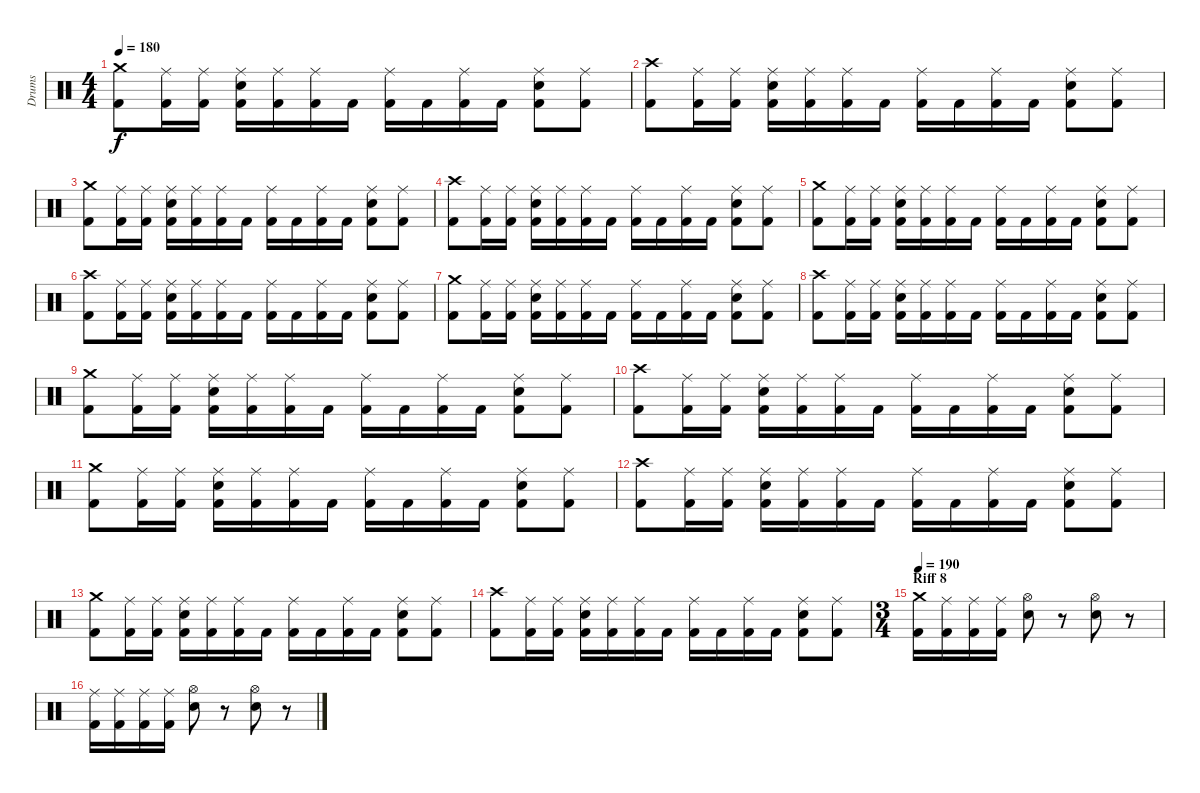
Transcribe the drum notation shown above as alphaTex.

\track ("Drums" "Drums") {instrument percussion}
\staff {score}
\articulation defaults
\ts (4 4)
\tempo 180
\clef neutral
\ks c
("Crash medium (hit)" "Kick (hit) 2").8{dy f} ("Ride (middle)" "Kick (hit) 2").16 ("Ride (middle)" "Kick (hit) 2").16 ("Ride (middle)" "Electric Snare (hit)" "Kick (hit) 2").16 ("Ride (middle)" "Kick (hit) 2").16 ("Ride (middle)" "Kick (hit) 2").16 "Kick (hit) 2".16 ("Ride (middle)" "Kick (hit) 2").16 "Kick (hit) 2".16 ("Ride (middle)" "Kick (hit) 2").16 "Kick (hit) 2".16 ("Ride (middle)" "Electric Snare (hit)" "Kick (hit) 2").8 ("Ride (middle)" "Kick (hit) 2").8 |
("Crash high (hit)" "Kick (hit) 2").8 ("Ride (middle)" "Kick (hit) 2").16 ("Ride (middle)" "Kick (hit) 2").16 ("Ride (middle)" "Electric Snare (hit)" "Kick (hit) 2").16 ("Ride (middle)" "Kick (hit) 2").16 ("Ride (middle)" "Kick (hit) 2").16 "Kick (hit) 2".16 ("Ride (middle)" "Kick (hit) 2").16 "Kick (hit) 2".16 ("Ride (middle)" "Kick (hit) 2").16 "Kick (hit) 2".16 ("Ride (middle)" "Electric Snare (hit)" "Kick (hit) 2").8 ("Ride (middle)" "Kick (hit) 2").8 |
("Crash medium (hit)" "Kick (hit) 2").8 ("Ride (middle)" "Kick (hit) 2").16 ("Ride (middle)" "Kick (hit) 2").16 ("Ride (middle)" "Electric Snare (hit)" "Kick (hit) 2").16 ("Ride (middle)" "Kick (hit) 2").16 ("Ride (middle)" "Kick (hit) 2").16 "Kick (hit) 2".16 ("Ride (middle)" "Kick (hit) 2").16 "Kick (hit) 2".16 ("Ride (middle)" "Kick (hit) 2").16 "Kick (hit) 2".16 ("Ride (middle)" "Electric Snare (hit)" "Kick (hit) 2").8 ("Ride (middle)" "Kick (hit) 2").8 |
("Crash high (hit)" "Kick (hit) 2").8 ("Ride (middle)" "Kick (hit) 2").16 ("Ride (middle)" "Kick (hit) 2").16 ("Ride (middle)" "Electric Snare (hit)" "Kick (hit) 2").16 ("Ride (middle)" "Kick (hit) 2").16 ("Ride (middle)" "Kick (hit) 2").16 "Kick (hit) 2".16 ("Ride (middle)" "Kick (hit) 2").16 "Kick (hit) 2".16 ("Ride (middle)" "Kick (hit) 2").16 "Kick (hit) 2".16 ("Ride (middle)" "Electric Snare (hit)" "Kick (hit) 2").8 ("Ride (middle)" "Kick (hit) 2").8 |
("Crash medium (hit)" "Kick (hit) 2").8 ("Ride (middle)" "Kick (hit) 2").16 ("Ride (middle)" "Kick (hit) 2").16 ("Ride (middle)" "Electric Snare (hit)" "Kick (hit) 2").16 ("Ride (middle)" "Kick (hit) 2").16 ("Ride (middle)" "Kick (hit) 2").16 "Kick (hit) 2".16 ("Ride (middle)" "Kick (hit) 2").16 "Kick (hit) 2".16 ("Ride (middle)" "Kick (hit) 2").16 "Kick (hit) 2".16 ("Ride (middle)" "Electric Snare (hit)" "Kick (hit) 2").8 ("Ride (middle)" "Kick (hit) 2").8 |
("Crash high (hit)" "Kick (hit) 2").8 ("Ride (middle)" "Kick (hit) 2").16 ("Ride (middle)" "Kick (hit) 2").16 ("Ride (middle)" "Electric Snare (hit)" "Kick (hit) 2").16 ("Ride (middle)" "Kick (hit) 2").16 ("Ride (middle)" "Kick (hit) 2").16 "Kick (hit) 2".16 ("Ride (middle)" "Kick (hit) 2").16 "Kick (hit) 2".16 ("Ride (middle)" "Kick (hit) 2").16 "Kick (hit) 2".16 ("Ride (middle)" "Electric Snare (hit)" "Kick (hit) 2").8 ("Ride (middle)" "Kick (hit) 2").8 |
("Crash medium (hit)" "Kick (hit) 2").8 ("Ride (middle)" "Kick (hit) 2").16 ("Ride (middle)" "Kick (hit) 2").16 ("Ride (middle)" "Electric Snare (hit)" "Kick (hit) 2").16 ("Ride (middle)" "Kick (hit) 2").16 ("Ride (middle)" "Kick (hit) 2").16 "Kick (hit) 2".16 ("Ride (middle)" "Kick (hit) 2").16 "Kick (hit) 2".16 ("Ride (middle)" "Kick (hit) 2").16 "Kick (hit) 2".16 ("Ride (middle)" "Electric Snare (hit)" "Kick (hit) 2").8 ("Ride (middle)" "Kick (hit) 2").8 |
("Crash high (hit)" "Kick (hit) 2").8 ("Ride (middle)" "Kick (hit) 2").16 ("Ride (middle)" "Kick (hit) 2").16 ("Ride (middle)" "Electric Snare (hit)" "Kick (hit) 2").16 ("Ride (middle)" "Kick (hit) 2").16 ("Ride (middle)" "Kick (hit) 2").16 "Kick (hit) 2".16 ("Ride (middle)" "Kick (hit) 2").16 "Kick (hit) 2".16 ("Ride (middle)" "Kick (hit) 2").16 "Kick (hit) 2".16 ("Ride (middle)" "Electric Snare (hit)" "Kick (hit) 2").8 ("Ride (middle)" "Kick (hit) 2").8 |
("Crash medium (hit)" "Kick (hit) 2").8 ("Ride (middle)" "Kick (hit) 2").16 ("Ride (middle)" "Kick (hit) 2").16 ("Ride (middle)" "Electric Snare (hit)" "Kick (hit) 2").16 ("Ride (middle)" "Kick (hit) 2").16 ("Ride (middle)" "Kick (hit) 2").16 "Kick (hit) 2".16 ("Ride (middle)" "Kick (hit) 2").16 "Kick (hit) 2".16 ("Ride (middle)" "Kick (hit) 2").16 "Kick (hit) 2".16 ("Ride (middle)" "Electric Snare (hit)" "Kick (hit) 2").8 ("Ride (middle)" "Kick (hit) 2").8 |
("Crash high (hit)" "Kick (hit) 2").8 ("Ride (middle)" "Kick (hit) 2").16 ("Ride (middle)" "Kick (hit) 2").16 ("Ride (middle)" "Electric Snare (hit)" "Kick (hit) 2").16 ("Ride (middle)" "Kick (hit) 2").16 ("Ride (middle)" "Kick (hit) 2").16 "Kick (hit) 2".16 ("Ride (middle)" "Kick (hit) 2").16 "Kick (hit) 2".16 ("Ride (middle)" "Kick (hit) 2").16 "Kick (hit) 2".16 ("Ride (middle)" "Electric Snare (hit)" "Kick (hit) 2").8 ("Ride (middle)" "Kick (hit) 2").8 |
("Crash medium (hit)" "Kick (hit) 2").8 ("Ride (middle)" "Kick (hit) 2").16 ("Ride (middle)" "Kick (hit) 2").16 ("Ride (middle)" "Electric Snare (hit)" "Kick (hit) 2").16 ("Ride (middle)" "Kick (hit) 2").16 ("Ride (middle)" "Kick (hit) 2").16 "Kick (hit) 2".16 ("Ride (middle)" "Kick (hit) 2").16 "Kick (hit) 2".16 ("Ride (middle)" "Kick (hit) 2").16 "Kick (hit) 2".16 ("Ride (middle)" "Electric Snare (hit)" "Kick (hit) 2").8 ("Ride (middle)" "Kick (hit) 2").8 |
("Crash high (hit)" "Kick (hit) 2").8 ("Ride (middle)" "Kick (hit) 2").16 ("Ride (middle)" "Kick (hit) 2").16 ("Ride (middle)" "Electric Snare (hit)" "Kick (hit) 2").16 ("Ride (middle)" "Kick (hit) 2").16 ("Ride (middle)" "Kick (hit) 2").16 "Kick (hit) 2".16 ("Ride (middle)" "Kick (hit) 2").16 "Kick (hit) 2".16 ("Ride (middle)" "Kick (hit) 2").16 "Kick (hit) 2".16 ("Ride (middle)" "Electric Snare (hit)" "Kick (hit) 2").8 ("Ride (middle)" "Kick (hit) 2").8 |
("Crash medium (hit)" "Kick (hit) 2").8 ("Ride (middle)" "Kick (hit) 2").16 ("Ride (middle)" "Kick (hit) 2").16 ("Ride (middle)" "Electric Snare (hit)" "Kick (hit) 2").16 ("Ride (middle)" "Kick (hit) 2").16 ("Ride (middle)" "Kick (hit) 2").16 "Kick (hit) 2".16 ("Ride (middle)" "Kick (hit) 2").16 "Kick (hit) 2".16 ("Ride (middle)" "Kick (hit) 2").16 "Kick (hit) 2".16 ("Ride (middle)" "Electric Snare (hit)" "Kick (hit) 2").8 ("Ride (middle)" "Kick (hit) 2").8 |
("Crash high (hit)" "Kick (hit) 2").8 ("Ride (middle)" "Kick (hit) 2").16 ("Ride (middle)" "Kick (hit) 2").16 ("Ride (middle)" "Electric Snare (hit)" "Kick (hit) 2").16 ("Ride (middle)" "Kick (hit) 2").16 ("Ride (middle)" "Kick (hit) 2").16 "Kick (hit) 2".16 ("Ride (middle)" "Kick (hit) 2").16 "Kick (hit) 2".16 ("Ride (middle)" "Kick (hit) 2").16 "Kick (hit) 2".16 ("Ride (middle)" "Electric Snare (hit)" "Kick (hit) 2").8 ("Ride (middle)" "Kick (hit) 2").8 |
\ts (3 4)
\section ("" "Riff 8")
\tempo 190
("Crash medium (hit)" "Kick (hit) 2").16 ("Ride (middle)" "Kick (hit) 2").16 ("Ride (middle)" "Kick (hit) 2").16 ("Ride (middle)" "Kick (hit) 2").16 ("Hi-Hat (open)" "Electric Snare (hit)").8 r.8 ("Hi-Hat (open)" "Electric Snare (hit)").8 r.8 |
("Ride (middle)" "Kick (hit) 2").16 ("Ride (middle)" "Kick (hit) 2").16 ("Ride (middle)" "Kick (hit) 2").16 ("Ride (middle)" "Kick (hit) 2").16 ("Hi-Hat (open)" "Electric Snare (hit)").8 r.8 ("Hi-Hat (open)" "Electric Snare (hit)").8 r.8
